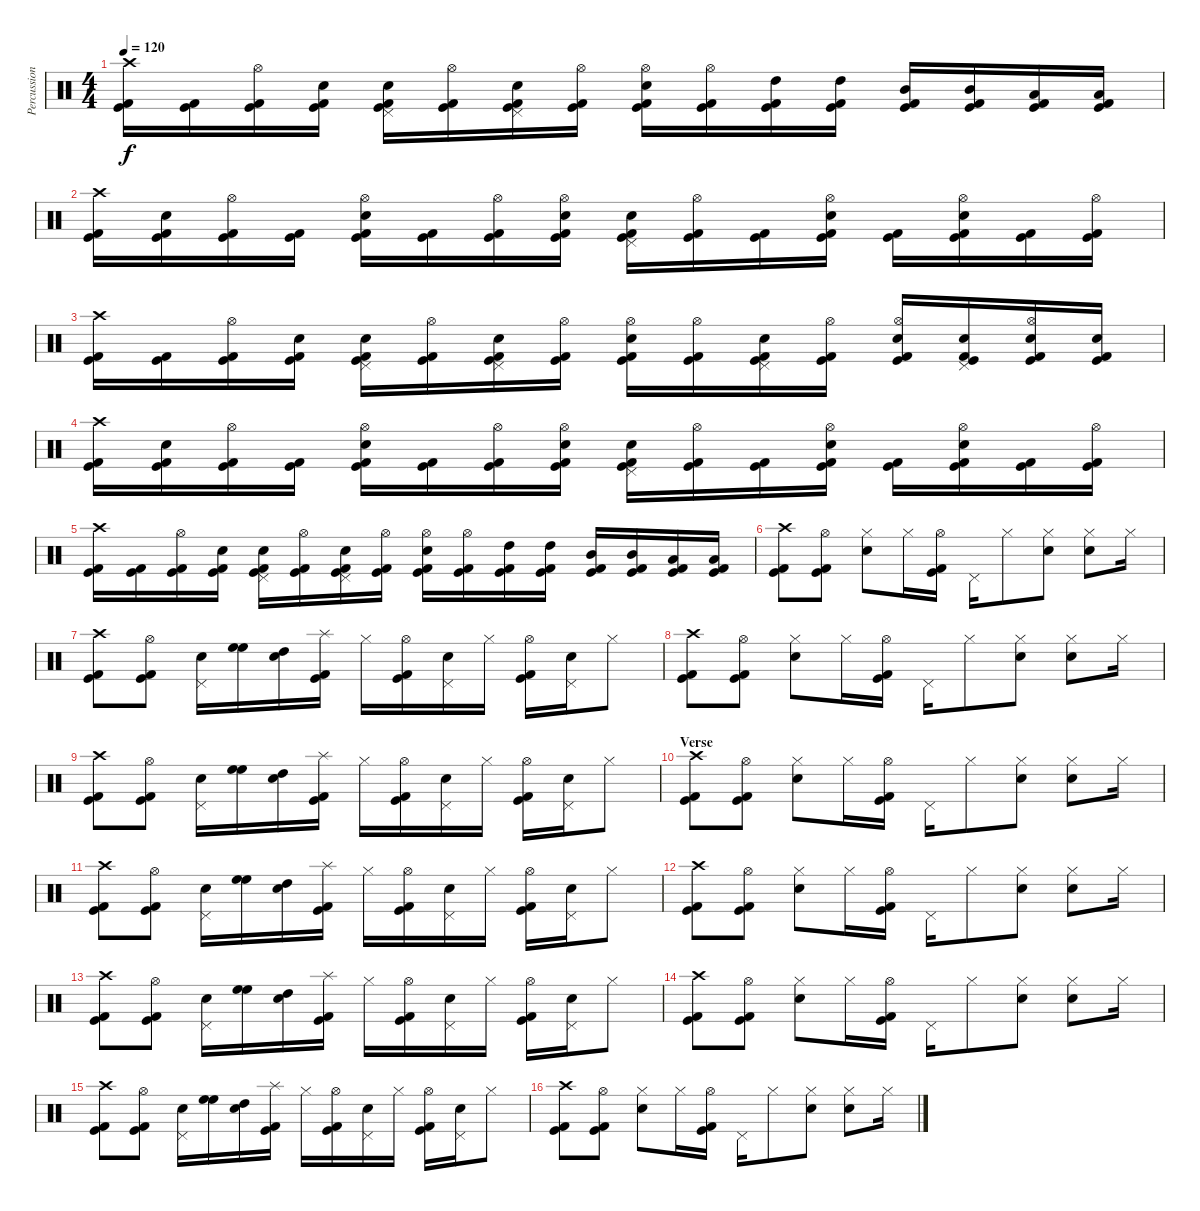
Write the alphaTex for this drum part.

\track ("Percussion" "Percussion") {instrument percussion}
\staff {score}
\articulation defaults
\ts (4 4)
\tempo 120
\clef neutral
\ks c
("Crash high (hit)" "Kick (hit) 2" "Kick (hit)").16{dy f} ("Kick (hit) 2" "Kick (hit)").16 ("Hi-Hat (open)" "Kick (hit) 2" "Kick (hit)").16 ("Snare (hit) 2" "Kick (hit) 2" "Kick (hit)").16 ("Pedal Hi-Hat (hit)" "Snare (hit) 2" "Kick (hit) 2" "Kick (hit)").16 ("Hi-Hat (open)" "Kick (hit) 2" "Kick (hit)").16 ("Pedal Hi-Hat (hit)" "Snare (hit) 2" "Kick (hit) 2" "Kick (hit)").16 ("Hi-Hat (open)" "Kick (hit) 2" "Kick (hit)").16 ("Hi-Hat (open)" "Snare (hit) 2" "Kick (hit) 2" "Kick (hit)").16 ("Hi-Hat (open)" "Kick (hit) 2" "Kick (hit)").16 ("High Tom (hit)" "Kick (hit) 2" "Kick (hit)").16 ("High Tom (hit)" "Kick (hit) 2" "Kick (hit)").16 ("Mid Tom (hit)" "Kick (hit) 2" "Kick (hit)").16 ("Mid Tom (hit)" "Kick (hit) 2" "Kick (hit)").16 ("Low Tom (hit)" "Kick (hit) 2" "Kick (hit)").16 ("Low Tom (hit)" "Kick (hit) 2" "Kick (hit)").16 |
("Crash high (hit)" "Kick (hit) 2" "Kick (hit)").16 ("Snare (hit) 2" "Kick (hit) 2" "Kick (hit)").16 ("Hi-Hat (open)" "Kick (hit) 2" "Kick (hit)").16 ("Kick (hit) 2" "Kick (hit)").16 ("Hi-Hat (open)" "Snare (hit) 2" "Kick (hit) 2" "Kick (hit)").16 ("Kick (hit) 2" "Kick (hit)").16 ("Hi-Hat (open)" "Kick (hit) 2" "Kick (hit)").16 ("Hi-Hat (open)" "Snare (hit) 2" "Kick (hit) 2" "Kick (hit)").16 ("Pedal Hi-Hat (hit)" "Snare (hit) 2" "Kick (hit) 2" "Kick (hit)").16 ("Hi-Hat (open)" "Kick (hit) 2" "Kick (hit)").16 ("Kick (hit) 2" "Kick (hit)").16 ("Hi-Hat (open)" "Snare (hit) 2" "Kick (hit) 2" "Kick (hit)").16 ("Kick (hit) 2" "Kick (hit)").16 ("Hi-Hat (open)" "Snare (hit) 2" "Kick (hit) 2" "Kick (hit)").16 ("Kick (hit) 2" "Kick (hit)").16 ("Hi-Hat (open)" "Kick (hit) 2" "Kick (hit)").16 |
("Crash high (hit)" "Kick (hit) 2" "Kick (hit)").16 ("Kick (hit) 2" "Kick (hit)").16 ("Hi-Hat (open)" "Kick (hit) 2" "Kick (hit)").16 ("Snare (hit) 2" "Kick (hit) 2" "Kick (hit)").16 ("Pedal Hi-Hat (hit)" "Snare (hit) 2" "Kick (hit) 2" "Kick (hit)").16 ("Hi-Hat (open)" "Kick (hit) 2" "Kick (hit)").16 ("Pedal Hi-Hat (hit)" "Snare (hit) 2" "Kick (hit) 2" "Kick (hit)").16 ("Hi-Hat (open)" "Kick (hit) 2" "Kick (hit)").16 ("Hi-Hat (open)" "Snare (hit) 2" "Kick (hit) 2" "Kick (hit)").16 ("Hi-Hat (open)" "Kick (hit) 2" "Kick (hit)").16 ("Pedal Hi-Hat (hit)" "Snare (hit) 2" "Kick (hit) 2" "Kick (hit)").16 ("Hi-Hat (open)" "Kick (hit) 2" "Kick (hit)").16 ("Hi-Hat (open)" "Snare (hit) 2" "Kick (hit) 2" "Kick (hit)").16 ("Pedal Hi-Hat (hit)" "Snare (hit) 2" "Kick (hit) 2" "Kick (hit)").16 ("Hi-Hat (open)" "Snare (hit) 2" "Kick (hit) 2" "Kick (hit)").16 ("Snare (hit) 2" "Kick (hit) 2" "Kick (hit)").16 |
("Crash high (hit)" "Kick (hit) 2" "Kick (hit)").16 ("Snare (hit) 2" "Kick (hit) 2" "Kick (hit)").16 ("Hi-Hat (open)" "Kick (hit) 2" "Kick (hit)").16 ("Kick (hit) 2" "Kick (hit)").16 ("Hi-Hat (open)" "Snare (hit) 2" "Kick (hit) 2" "Kick (hit)").16 ("Kick (hit) 2" "Kick (hit)").16 ("Hi-Hat (open)" "Kick (hit) 2" "Kick (hit)").16 ("Hi-Hat (open)" "Snare (hit) 2" "Kick (hit) 2" "Kick (hit)").16 ("Pedal Hi-Hat (hit)" "Snare (hit) 2" "Kick (hit) 2" "Kick (hit)").16 ("Hi-Hat (open)" "Kick (hit) 2" "Kick (hit)").16 ("Kick (hit) 2" "Kick (hit)").16 ("Hi-Hat (open)" "Snare (hit) 2" "Kick (hit) 2" "Kick (hit)").16 ("Kick (hit) 2" "Kick (hit)").16 ("Hi-Hat (open)" "Snare (hit) 2" "Kick (hit) 2" "Kick (hit)").16 ("Kick (hit) 2" "Kick (hit)").16 ("Hi-Hat (open)" "Kick (hit) 2" "Kick (hit)").16 |
("Crash high (hit)" "Kick (hit) 2" "Kick (hit)").16 ("Kick (hit) 2" "Kick (hit)").16 ("Hi-Hat (open)" "Kick (hit) 2" "Kick (hit)").16 ("Snare (hit) 2" "Kick (hit) 2" "Kick (hit)").16 ("Pedal Hi-Hat (hit)" "Snare (hit) 2" "Kick (hit) 2" "Kick (hit)").16 ("Hi-Hat (open)" "Kick (hit) 2" "Kick (hit)").16 ("Pedal Hi-Hat (hit)" "Snare (hit) 2" "Kick (hit) 2" "Kick (hit)").16 ("Hi-Hat (open)" "Kick (hit) 2" "Kick (hit)").16 ("Hi-Hat (open)" "Snare (hit) 2" "Kick (hit) 2" "Kick (hit)").16 ("Hi-Hat (open)" "Kick (hit) 2" "Kick (hit)").16 ("High Tom (hit)" "Kick (hit) 2" "Kick (hit)").16 ("High Tom (hit)" "Kick (hit) 2" "Kick (hit)").16 ("Mid Tom (hit)" "Kick (hit) 2" "Kick (hit)").16 ("Mid Tom (hit)" "Kick (hit) 2" "Kick (hit)").16 ("Low Tom (hit)" "Kick (hit) 2" "Kick (hit)").16 ("Low Tom (hit)" "Kick (hit) 2" "Kick (hit)").16 |
("Crash high (hit)" "Kick (hit) 2" "Kick (hit)").8 ("Hi-Hat (open)" "Kick (hit) 2" "Kick (hit)").8 ("Hi-Hat (closed)" "Snare (hit) 2").8 "Hi-Hat (closed)".16 ("Hi-Hat (open)" "Kick (hit) 2" "Kick (hit)").16 "Pedal Hi-Hat (hit)".16 "Hi-Hat (closed)".8 ("Hi-Hat (closed)" "Snare (hit) 2").8 ("Hi-Hat (closed)" "Snare (hit) 2").8 "Hi-Hat (closed)".16 |
("Crash high (hit)" "Kick (hit) 2" "Kick (hit)").8 ("Hi-Hat (open)" "Kick (hit) 2" "Kick (hit)").8 ("Pedal Hi-Hat (hit)" "Snare (hit) 2").16 ("High Floor Tom (hit)" "High Floor Tom (hit)").16 ("Snare (hit) 2" "High Tom (hit)").16 ("Splash (hit)" "Kick (hit) 2" "Kick (hit)").16 "Hi-Hat (closed)".16 ("Hi-Hat (open)" "Kick (hit) 2" "Kick (hit)").16 ("Pedal Hi-Hat (hit)" "Snare (hit) 2").16 "Hi-Hat (closed)".16 ("Hi-Hat (open)" "Kick (hit) 2" "Kick (hit)").16 ("Pedal Hi-Hat (hit)" "Snare (hit) 2").16 "Hi-Hat (closed)".8 |
("Crash high (hit)" "Kick (hit) 2" "Kick (hit)").8 ("Hi-Hat (open)" "Kick (hit) 2" "Kick (hit)").8 ("Hi-Hat (closed)" "Snare (hit) 2").8 "Hi-Hat (closed)".16 ("Hi-Hat (open)" "Kick (hit) 2" "Kick (hit)").16 "Pedal Hi-Hat (hit)".16 "Hi-Hat (closed)".8 ("Hi-Hat (closed)" "Snare (hit) 2").8 ("Hi-Hat (closed)" "Snare (hit) 2").8 "Hi-Hat (closed)".16 |
("Crash high (hit)" "Kick (hit) 2" "Kick (hit)").8 ("Hi-Hat (open)" "Kick (hit) 2" "Kick (hit)").8 ("Pedal Hi-Hat (hit)" "Snare (hit) 2").16 ("High Floor Tom (hit)" "High Floor Tom (hit)").16 ("Snare (hit) 2" "High Tom (hit)").16 ("Splash (hit)" "Kick (hit) 2" "Kick (hit)").16 "Hi-Hat (closed)".16 ("Hi-Hat (open)" "Kick (hit) 2" "Kick (hit)").16 ("Pedal Hi-Hat (hit)" "Snare (hit) 2").16 "Hi-Hat (closed)".16 ("Hi-Hat (open)" "Kick (hit) 2" "Kick (hit)").16 ("Pedal Hi-Hat (hit)" "Snare (hit) 2").16 "Hi-Hat (closed)".8 |
\section ("" "Verse")
("Crash high (hit)" "Kick (hit) 2" "Kick (hit)").8 ("Hi-Hat (open)" "Kick (hit) 2" "Kick (hit)").8 ("Hi-Hat (closed)" "Snare (hit) 2").8 "Hi-Hat (closed)".16 ("Hi-Hat (open)" "Kick (hit) 2" "Kick (hit)").16 "Pedal Hi-Hat (hit)".16 "Hi-Hat (closed)".8 ("Hi-Hat (closed)" "Snare (hit) 2").8 ("Hi-Hat (closed)" "Snare (hit) 2").8 "Hi-Hat (closed)".16 |
("Crash high (hit)" "Kick (hit) 2" "Kick (hit)").8 ("Hi-Hat (open)" "Kick (hit) 2" "Kick (hit)").8 ("Pedal Hi-Hat (hit)" "Snare (hit) 2").16 ("High Floor Tom (hit)" "High Floor Tom (hit)").16 ("Snare (hit) 2" "High Tom (hit)").16 ("Splash (hit)" "Kick (hit) 2" "Kick (hit)").16 "Hi-Hat (closed)".16 ("Hi-Hat (open)" "Kick (hit) 2" "Kick (hit)").16 ("Pedal Hi-Hat (hit)" "Snare (hit) 2").16 "Hi-Hat (closed)".16 ("Hi-Hat (open)" "Kick (hit) 2" "Kick (hit)").16 ("Pedal Hi-Hat (hit)" "Snare (hit) 2").16 "Hi-Hat (closed)".8 |
("Crash high (hit)" "Kick (hit) 2" "Kick (hit)").8 ("Hi-Hat (open)" "Kick (hit) 2" "Kick (hit)").8 ("Hi-Hat (closed)" "Snare (hit) 2").8 "Hi-Hat (closed)".16 ("Hi-Hat (open)" "Kick (hit) 2" "Kick (hit)").16 "Pedal Hi-Hat (hit)".16 "Hi-Hat (closed)".8 ("Hi-Hat (closed)" "Snare (hit) 2").8 ("Hi-Hat (closed)" "Snare (hit) 2").8 "Hi-Hat (closed)".16 |
("Crash high (hit)" "Kick (hit) 2" "Kick (hit)").8 ("Hi-Hat (open)" "Kick (hit) 2" "Kick (hit)").8 ("Pedal Hi-Hat (hit)" "Snare (hit) 2").16 ("High Floor Tom (hit)" "High Floor Tom (hit)").16 ("Snare (hit) 2" "High Tom (hit)").16 ("Splash (hit)" "Kick (hit) 2" "Kick (hit)").16 "Hi-Hat (closed)".16 ("Hi-Hat (open)" "Kick (hit) 2" "Kick (hit)").16 ("Pedal Hi-Hat (hit)" "Snare (hit) 2").16 "Hi-Hat (closed)".16 ("Hi-Hat (open)" "Kick (hit) 2" "Kick (hit)").16 ("Pedal Hi-Hat (hit)" "Snare (hit) 2").16 "Hi-Hat (closed)".8 |
("Crash high (hit)" "Kick (hit) 2" "Kick (hit)").8 ("Hi-Hat (open)" "Kick (hit) 2" "Kick (hit)").8 ("Hi-Hat (closed)" "Snare (hit) 2").8 "Hi-Hat (closed)".16 ("Hi-Hat (open)" "Kick (hit) 2" "Kick (hit)").16 "Pedal Hi-Hat (hit)".16 "Hi-Hat (closed)".8 ("Hi-Hat (closed)" "Snare (hit) 2").8 ("Hi-Hat (closed)" "Snare (hit) 2").8 "Hi-Hat (closed)".16 |
("Crash high (hit)" "Kick (hit) 2" "Kick (hit)").8 ("Hi-Hat (open)" "Kick (hit) 2" "Kick (hit)").8 ("Pedal Hi-Hat (hit)" "Snare (hit) 2").16 ("High Floor Tom (hit)" "High Floor Tom (hit)").16 ("Snare (hit) 2" "High Tom (hit)").16 ("Splash (hit)" "Kick (hit) 2" "Kick (hit)").16 "Hi-Hat (closed)".16 ("Hi-Hat (open)" "Kick (hit) 2" "Kick (hit)").16 ("Pedal Hi-Hat (hit)" "Snare (hit) 2").16 "Hi-Hat (closed)".16 ("Hi-Hat (open)" "Kick (hit) 2" "Kick (hit)").16 ("Pedal Hi-Hat (hit)" "Snare (hit) 2").16 "Hi-Hat (closed)".8 |
("Crash high (hit)" "Kick (hit) 2" "Kick (hit)").8 ("Hi-Hat (open)" "Kick (hit) 2" "Kick (hit)").8 ("Hi-Hat (closed)" "Snare (hit) 2").8 "Hi-Hat (closed)".16 ("Hi-Hat (open)" "Kick (hit) 2" "Kick (hit)").16 "Pedal Hi-Hat (hit)".16 "Hi-Hat (closed)".8 ("Hi-Hat (closed)" "Snare (hit) 2").8 ("Hi-Hat (closed)" "Snare (hit) 2").8 "Hi-Hat (closed)".16
